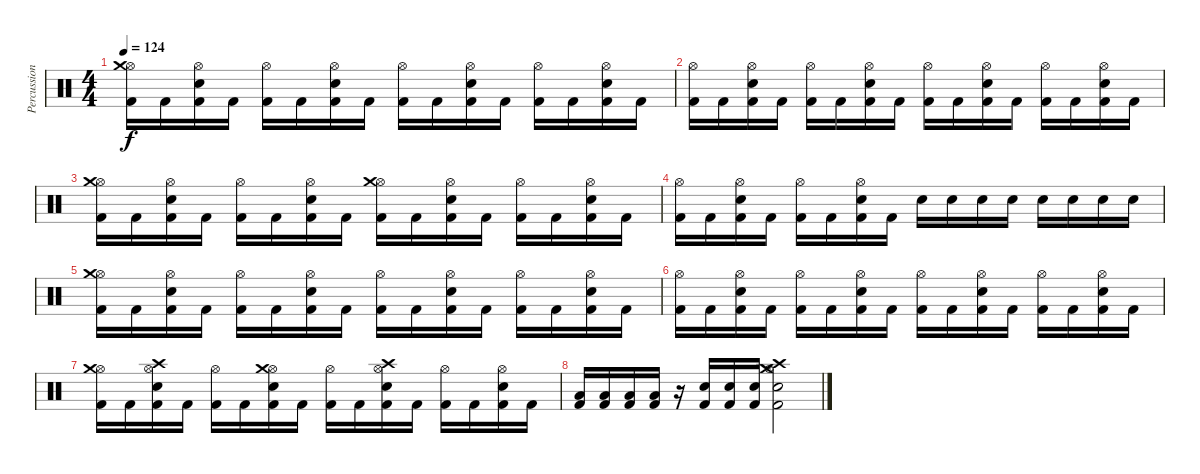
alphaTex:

\track ("Percussion" "Percussion") {instrument percussion}
\staff {score}
\articulation defaults
\ts (4 4)
\tempo 124
\clef neutral
\ks c
("Kick (hit) 2" "Hi-Hat (open)" "Crash medium (hit)").16{dy f} "Kick (hit) 2".16 ("Kick (hit) 2" "Electric Snare (hit)" "Hi-Hat (open)").16 "Kick (hit) 2".16 ("Kick (hit) 2" "Hi-Hat (open)").16 "Kick (hit) 2".16 ("Kick (hit) 2" "Electric Snare (hit)" "Hi-Hat (open)").16 "Kick (hit) 2".16 ("Kick (hit) 2" "Hi-Hat (open)").16 "Kick (hit) 2".16 ("Kick (hit) 2" "Electric Snare (hit)" "Hi-Hat (open)").16 "Kick (hit) 2".16 ("Kick (hit) 2" "Hi-Hat (open)").16 "Kick (hit) 2".16 ("Kick (hit) 2" "Electric Snare (hit)" "Hi-Hat (open)").16 "Kick (hit) 2".16 |
("Kick (hit) 2" "Hi-Hat (open)").16 "Kick (hit) 2".16 ("Kick (hit) 2" "Electric Snare (hit)" "Hi-Hat (open)").16 "Kick (hit) 2".16 ("Kick (hit) 2" "Hi-Hat (open)").16 "Kick (hit) 2".16 ("Kick (hit) 2" "Electric Snare (hit)" "Hi-Hat (open)").16 "Kick (hit) 2".16 ("Kick (hit) 2" "Hi-Hat (open)").16 "Kick (hit) 2".16 ("Kick (hit) 2" "Electric Snare (hit)" "Hi-Hat (open)").16 "Kick (hit) 2".16 ("Kick (hit) 2" "Hi-Hat (open)").16 "Kick (hit) 2".16 ("Kick (hit) 2" "Electric Snare (hit)" "Hi-Hat (open)").16 "Kick (hit) 2".16 |
("Kick (hit) 2" "Hi-Hat (open)" "Crash medium (hit)").16 "Kick (hit) 2".16 ("Kick (hit) 2" "Electric Snare (hit)" "Hi-Hat (open)").16 "Kick (hit) 2".16 ("Kick (hit) 2" "Hi-Hat (open)").16 "Kick (hit) 2".16 ("Kick (hit) 2" "Electric Snare (hit)" "Hi-Hat (open)").16 "Kick (hit) 2".16 ("Kick (hit) 2" "Hi-Hat (open)" "Crash medium (hit)").16 "Kick (hit) 2".16 ("Kick (hit) 2" "Electric Snare (hit)" "Hi-Hat (open)").16 "Kick (hit) 2".16 ("Kick (hit) 2" "Hi-Hat (open)").16 "Kick (hit) 2".16 ("Kick (hit) 2" "Electric Snare (hit)" "Hi-Hat (open)").16 "Kick (hit) 2".16 |
("Kick (hit) 2" "Hi-Hat (open)").16 "Kick (hit) 2".16 ("Kick (hit) 2" "Electric Snare (hit)" "Hi-Hat (open)").16 "Kick (hit) 2".16 ("Kick (hit) 2" "Hi-Hat (open)").16 "Kick (hit) 2".16 ("Kick (hit) 2" "Electric Snare (hit)" "Hi-Hat (open)").16 "Kick (hit) 2".16 "Electric Snare (hit)".16 "Electric Snare (hit)".16 "Electric Snare (hit)".16 "Electric Snare (hit)".16 "Electric Snare (hit)".16 "Electric Snare (hit)".16 "Electric Snare (hit)".16 "Electric Snare (hit)".16 |
("Kick (hit) 2" "Hi-Hat (open)" "Crash medium (hit)").16 "Kick (hit) 2".16 ("Kick (hit) 2" "Electric Snare (hit)" "Hi-Hat (open)").16 "Kick (hit) 2".16 ("Kick (hit) 2" "Hi-Hat (open)").16 "Kick (hit) 2".16 ("Kick (hit) 2" "Electric Snare (hit)" "Hi-Hat (open)").16 "Kick (hit) 2".16 ("Kick (hit) 2" "Hi-Hat (open)").16 "Kick (hit) 2".16 ("Kick (hit) 2" "Electric Snare (hit)" "Hi-Hat (open)").16 "Kick (hit) 2".16 ("Kick (hit) 2" "Hi-Hat (open)").16 "Kick (hit) 2".16 ("Kick (hit) 2" "Electric Snare (hit)" "Hi-Hat (open)").16 "Kick (hit) 2".16 |
("Kick (hit) 2" "Hi-Hat (open)").16 "Kick (hit) 2".16 ("Kick (hit) 2" "Electric Snare (hit)" "Hi-Hat (open)").16 "Kick (hit) 2".16 ("Kick (hit) 2" "Hi-Hat (open)").16 "Kick (hit) 2".16 ("Kick (hit) 2" "Electric Snare (hit)" "Hi-Hat (open)").16 "Kick (hit) 2".16 ("Kick (hit) 2" "Hi-Hat (open)").16 "Kick (hit) 2".16 ("Kick (hit) 2" "Electric Snare (hit)" "Hi-Hat (open)").16 "Kick (hit) 2".16 ("Kick (hit) 2" "Hi-Hat (open)").16 "Kick (hit) 2".16 ("Kick (hit) 2" "Electric Snare (hit)" "Hi-Hat (open)").16 "Kick (hit) 2".16 |
("Kick (hit) 2" "Hi-Hat (open)" "Crash medium (hit)").16 "Kick (hit) 2".16 ("Kick (hit) 2" "Electric Snare (hit)" "Hi-Hat (open)" "Crash high (hit)").16 "Kick (hit) 2".16 ("Kick (hit) 2" "Hi-Hat (open)").16 "Kick (hit) 2".16 ("Kick (hit) 2" "Electric Snare (hit)" "Hi-Hat (open)" "Crash medium (hit)").16 "Kick (hit) 2".16 ("Kick (hit) 2" "Hi-Hat (open)").16 "Kick (hit) 2".16 ("Kick (hit) 2" "Electric Snare (hit)" "Hi-Hat (open)" "Crash high (hit)").16 "Kick (hit) 2".16 ("Kick (hit) 2" "Hi-Hat (open)").16 "Kick (hit) 2".16 ("Kick (hit) 2" "Electric Snare (hit)" "Hi-Hat (open)").16 "Kick (hit) 2".16 |
("Kick (hit) 2" "Low Floor Tom (hit)").16 ("Kick (hit) 2" "Low Floor Tom (hit)").16 ("Kick (hit) 2" "Low Floor Tom (hit)").16 ("Kick (hit) 2" "Low Floor Tom (hit)").16 r.16 ("Kick (hit) 2" "Electric Snare (hit)").16 ("Kick (hit) 2" "Electric Snare (hit)").16 ("Kick (hit) 2" "Electric Snare (hit)").16 ("Kick (hit) 2" "Electric Snare (hit)" "Hi-Hat (open)" "Crash high (hit)" "Crash medium (hit)").2
